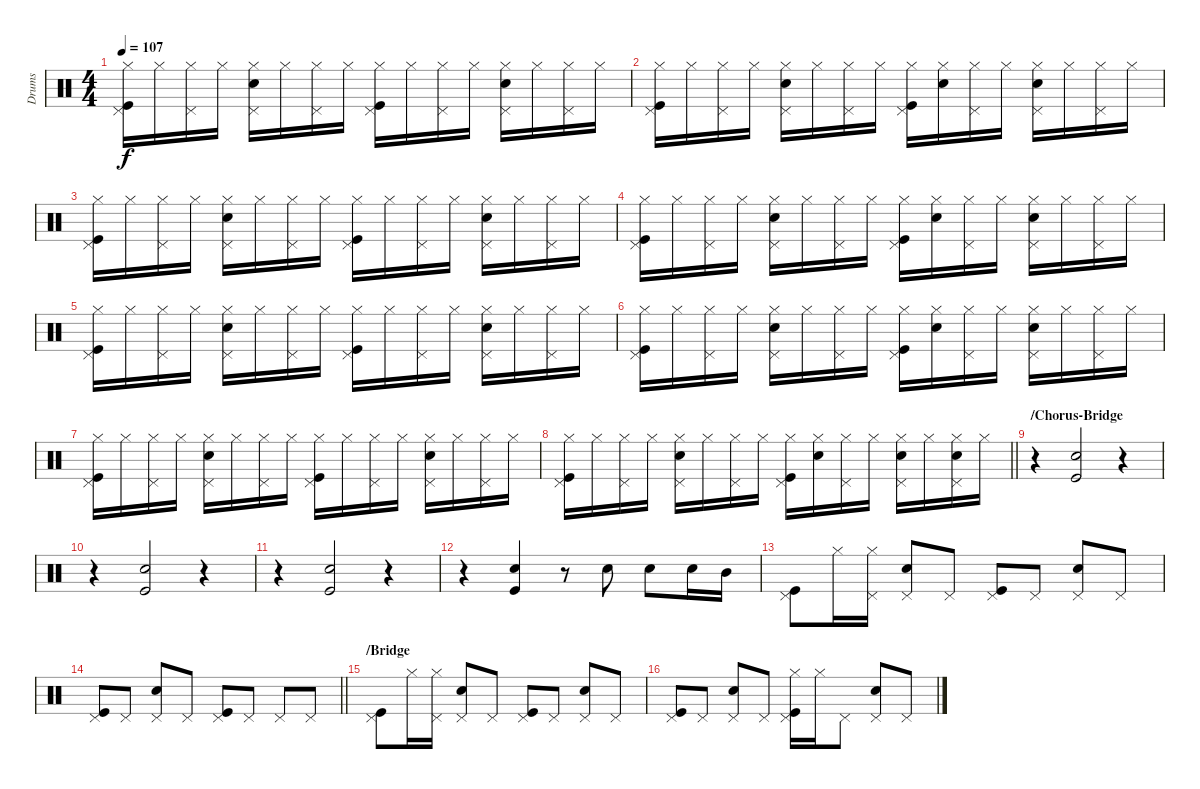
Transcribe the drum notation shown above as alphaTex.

\track ("Drums" "Drums") {instrument percussion}
\staff {score}
\articulation defaults
\ts (4 4)
\tempo 107
\clef neutral
\ks c
("Kick (hit)" "Pedal Hi-Hat (hit)" "Hi-Hat (closed)").16{dy f} "Hi-Hat (closed)".16 ("Pedal Hi-Hat (hit)" "Hi-Hat (closed)").16 "Hi-Hat (closed)".16 ("Snare (hit) 2" "Pedal Hi-Hat (hit)" "Hi-Hat (closed)").16 "Hi-Hat (closed)".16 ("Pedal Hi-Hat (hit)" "Hi-Hat (closed)").16 "Hi-Hat (closed)".16 ("Kick (hit)" "Pedal Hi-Hat (hit)" "Hi-Hat (closed)").16 "Hi-Hat (closed)".16 ("Pedal Hi-Hat (hit)" "Hi-Hat (closed)").16 "Hi-Hat (closed)".16 ("Snare (hit) 2" "Pedal Hi-Hat (hit)" "Hi-Hat (closed)").16 "Hi-Hat (closed)".16 ("Pedal Hi-Hat (hit)" "Hi-Hat (closed)").16 "Hi-Hat (closed)".16 |
("Kick (hit)" "Pedal Hi-Hat (hit)" "Hi-Hat (closed)").16 "Hi-Hat (closed)".16 ("Pedal Hi-Hat (hit)" "Hi-Hat (closed)").16 "Hi-Hat (closed)".16 ("Snare (hit) 2" "Pedal Hi-Hat (hit)" "Hi-Hat (closed)").16 "Hi-Hat (closed)".16 ("Pedal Hi-Hat (hit)" "Hi-Hat (closed)").16 "Hi-Hat (closed)".16 ("Kick (hit)" "Pedal Hi-Hat (hit)" "Hi-Hat (closed)").16 ("Snare (hit) 2" "Hi-Hat (closed)").16 ("Pedal Hi-Hat (hit)" "Hi-Hat (closed)").16 "Hi-Hat (closed)".16 ("Snare (hit) 2" "Pedal Hi-Hat (hit)" "Hi-Hat (closed)").16 "Hi-Hat (closed)".16 ("Pedal Hi-Hat (hit)" "Hi-Hat (closed)").16 "Hi-Hat (closed)".16 |
("Kick (hit)" "Pedal Hi-Hat (hit)" "Hi-Hat (closed)").16 "Hi-Hat (closed)".16 ("Pedal Hi-Hat (hit)" "Hi-Hat (closed)").16 "Hi-Hat (closed)".16 ("Snare (hit) 2" "Pedal Hi-Hat (hit)" "Hi-Hat (closed)").16 "Hi-Hat (closed)".16 ("Pedal Hi-Hat (hit)" "Hi-Hat (closed)").16 "Hi-Hat (closed)".16 ("Kick (hit)" "Pedal Hi-Hat (hit)" "Hi-Hat (closed)").16 "Hi-Hat (closed)".16 ("Pedal Hi-Hat (hit)" "Hi-Hat (closed)").16 "Hi-Hat (closed)".16 ("Snare (hit) 2" "Pedal Hi-Hat (hit)" "Hi-Hat (closed)").16 "Hi-Hat (closed)".16 ("Pedal Hi-Hat (hit)" "Hi-Hat (closed)").16 "Hi-Hat (closed)".16 |
("Kick (hit)" "Pedal Hi-Hat (hit)" "Hi-Hat (closed)").16 "Hi-Hat (closed)".16 ("Pedal Hi-Hat (hit)" "Hi-Hat (closed)").16 "Hi-Hat (closed)".16 ("Snare (hit) 2" "Pedal Hi-Hat (hit)" "Hi-Hat (closed)").16 "Hi-Hat (closed)".16 ("Pedal Hi-Hat (hit)" "Hi-Hat (closed)").16 "Hi-Hat (closed)".16 ("Kick (hit)" "Pedal Hi-Hat (hit)" "Hi-Hat (closed)").16 ("Snare (hit) 2" "Hi-Hat (closed)").16 ("Pedal Hi-Hat (hit)" "Hi-Hat (closed)").16 "Hi-Hat (closed)".16 ("Snare (hit) 2" "Pedal Hi-Hat (hit)" "Hi-Hat (closed)").16 "Hi-Hat (closed)".16 ("Pedal Hi-Hat (hit)" "Hi-Hat (closed)").16 "Hi-Hat (closed)".16 |
("Kick (hit)" "Pedal Hi-Hat (hit)" "Hi-Hat (closed)").16 "Hi-Hat (closed)".16 ("Pedal Hi-Hat (hit)" "Hi-Hat (closed)").16 "Hi-Hat (closed)".16 ("Snare (hit) 2" "Pedal Hi-Hat (hit)" "Hi-Hat (closed)").16 "Hi-Hat (closed)".16 ("Pedal Hi-Hat (hit)" "Hi-Hat (closed)").16 "Hi-Hat (closed)".16 ("Kick (hit)" "Pedal Hi-Hat (hit)" "Hi-Hat (closed)").16 "Hi-Hat (closed)".16 ("Pedal Hi-Hat (hit)" "Hi-Hat (closed)").16 "Hi-Hat (closed)".16 ("Snare (hit) 2" "Pedal Hi-Hat (hit)" "Hi-Hat (closed)").16 "Hi-Hat (closed)".16 ("Pedal Hi-Hat (hit)" "Hi-Hat (closed)").16 "Hi-Hat (closed)".16 |
("Kick (hit)" "Pedal Hi-Hat (hit)" "Hi-Hat (closed)").16 "Hi-Hat (closed)".16 ("Pedal Hi-Hat (hit)" "Hi-Hat (closed)").16 "Hi-Hat (closed)".16 ("Snare (hit) 2" "Pedal Hi-Hat (hit)" "Hi-Hat (closed)").16 "Hi-Hat (closed)".16 ("Pedal Hi-Hat (hit)" "Hi-Hat (closed)").16 "Hi-Hat (closed)".16 ("Kick (hit)" "Pedal Hi-Hat (hit)" "Hi-Hat (closed)").16 ("Snare (hit) 2" "Hi-Hat (closed)").16 ("Pedal Hi-Hat (hit)" "Hi-Hat (closed)").16 "Hi-Hat (closed)".16 ("Snare (hit) 2" "Pedal Hi-Hat (hit)" "Hi-Hat (closed)").16 "Hi-Hat (closed)".16 ("Pedal Hi-Hat (hit)" "Hi-Hat (closed)").16 "Hi-Hat (closed)".16 |
("Kick (hit)" "Pedal Hi-Hat (hit)" "Hi-Hat (closed)").16 "Hi-Hat (closed)".16 ("Pedal Hi-Hat (hit)" "Hi-Hat (closed)").16 "Hi-Hat (closed)".16 ("Snare (hit) 2" "Pedal Hi-Hat (hit)" "Hi-Hat (closed)").16 "Hi-Hat (closed)".16 ("Pedal Hi-Hat (hit)" "Hi-Hat (closed)").16 "Hi-Hat (closed)".16 ("Kick (hit)" "Pedal Hi-Hat (hit)" "Hi-Hat (closed)").16 "Hi-Hat (closed)".16 ("Pedal Hi-Hat (hit)" "Hi-Hat (closed)").16 "Hi-Hat (closed)".16 ("Snare (hit) 2" "Pedal Hi-Hat (hit)" "Hi-Hat (closed)").16 "Hi-Hat (closed)".16 ("Pedal Hi-Hat (hit)" "Hi-Hat (closed)").16 "Hi-Hat (closed)".16 |
\barLineRight lightlight
("Kick (hit)" "Pedal Hi-Hat (hit)" "Hi-Hat (closed)").16 "Hi-Hat (closed)".16 ("Pedal Hi-Hat (hit)" "Hi-Hat (closed)").16 "Hi-Hat (closed)".16 ("Snare (hit) 2" "Pedal Hi-Hat (hit)" "Hi-Hat (closed)").16 "Hi-Hat (closed)".16 ("Pedal Hi-Hat (hit)" "Hi-Hat (closed)").16 "Hi-Hat (closed)".16 ("Kick (hit)" "Pedal Hi-Hat (hit)" "Hi-Hat (closed)").16 ("Snare (hit) 2" "Hi-Hat (closed)").16 ("Pedal Hi-Hat (hit)" "Hi-Hat (closed)").16 "Hi-Hat (closed)".16 ("Snare (hit) 2" "Pedal Hi-Hat (hit)" "Hi-Hat (closed)").16 "Hi-Hat (closed)".16 ("Snare (hit) 2" "Pedal Hi-Hat (hit)" "Hi-Hat (closed)").16 "Hi-Hat (closed)".16 |
\section ("" "/Chorus-Bridge")
r.4 ("Kick (hit)" "Snare (hit) 2").2 r.4 |
r.4 ("Kick (hit)" "Snare (hit) 2").2 r.4 |
r.4 ("Kick (hit)" "Snare (hit) 2").2 r.4 |
r.4 ("Kick (hit)" "Snare (hit) 2").4 r.8 "Snare (hit) 2".8 "Snare (hit) 2".8 "Snare (hit) 2".16 "Mid Tom (hit)".16 |
("Kick (hit)" "Pedal Hi-Hat (hit)").8 "Hi-Hat (closed)".16 ("Pedal Hi-Hat (hit)" "Hi-Hat (closed)").16 ("Snare (hit) 2" "Pedal Hi-Hat (hit)").8 "Pedal Hi-Hat (hit)".8 ("Kick (hit)" "Pedal Hi-Hat (hit)").8 "Pedal Hi-Hat (hit)".8 ("Snare (hit) 2" "Pedal Hi-Hat (hit)").8 "Pedal Hi-Hat (hit)".8 |
\barLineRight lightlight
("Kick (hit)" "Pedal Hi-Hat (hit)").8 "Pedal Hi-Hat (hit)".8 ("Snare (hit) 2" "Pedal Hi-Hat (hit)").8 "Pedal Hi-Hat (hit)".8 ("Kick (hit)" "Pedal Hi-Hat (hit)").8 "Pedal Hi-Hat (hit)".8 "Pedal Hi-Hat (hit)".8 "Pedal Hi-Hat (hit)".8 |
\section ("" "/Bridge")
("Kick (hit)" "Pedal Hi-Hat (hit)").8 "Hi-Hat (closed)".16 ("Pedal Hi-Hat (hit)" "Hi-Hat (closed)").16 ("Snare (hit) 2" "Pedal Hi-Hat (hit)").8 "Pedal Hi-Hat (hit)".8 ("Kick (hit)" "Pedal Hi-Hat (hit)").8 "Pedal Hi-Hat (hit)".8 ("Snare (hit) 2" "Pedal Hi-Hat (hit)").8 "Pedal Hi-Hat (hit)".8 |
("Kick (hit)" "Pedal Hi-Hat (hit)").8 "Pedal Hi-Hat (hit)".8 ("Snare (hit) 2" "Pedal Hi-Hat (hit)").8 "Pedal Hi-Hat (hit)".8 ("Kick (hit)" "Pedal Hi-Hat (hit)" "Hi-Hat (closed)").16 "Hi-Hat (closed)".16 "Pedal Hi-Hat (hit)".8 ("Snare (hit) 2" "Pedal Hi-Hat (hit)").8 "Pedal Hi-Hat (hit)".8
